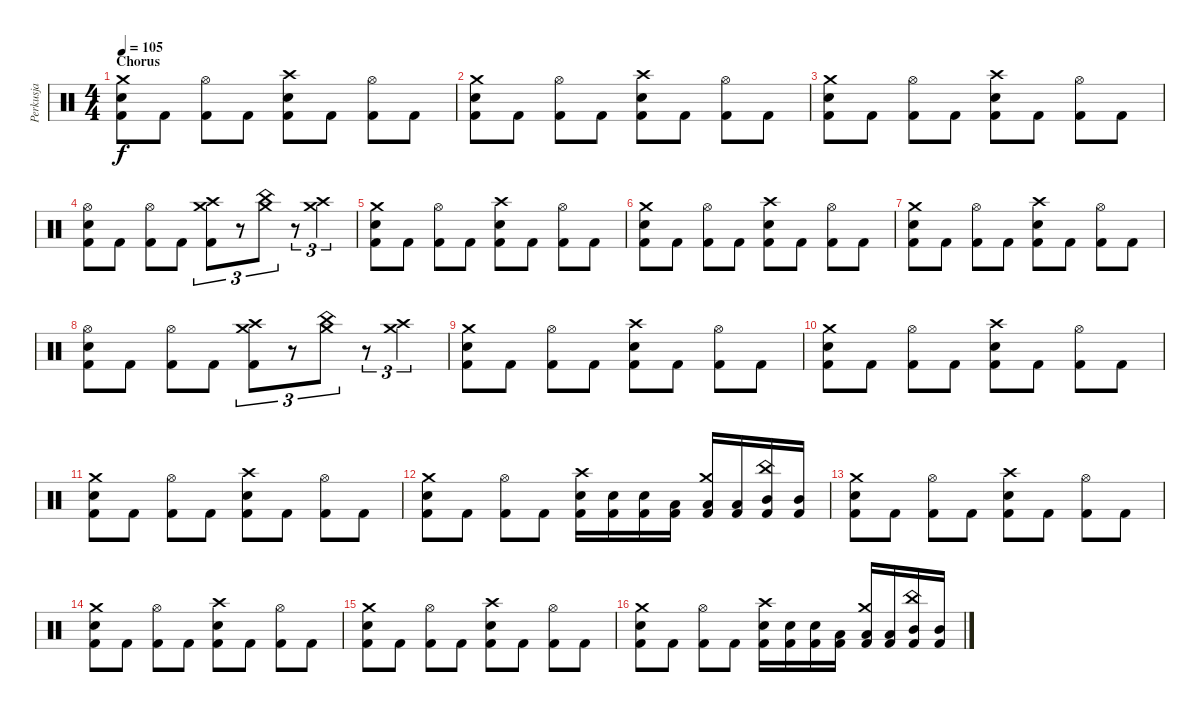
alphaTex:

\track ("Perkusja" "Perkusja") {instrument percussion}
\staff {score}
\articulation defaults
\ts (4 4)
\section ("" "Chorus")
\tempo 105
\clef neutral
\ks c
("Kick (hit) 2" "Snare (hit) 2" "Crash medium (hit)").8{dy f} "Kick (hit) 2".8 ("Kick (hit) 2" "Hi-Hat (open)").8 "Kick (hit) 2".8 ("Kick (hit) 2" "Snare (hit) 2" "Crash high (hit)").8 "Kick (hit) 2".8 ("Kick (hit) 2" "Hi-Hat (open)").8 "Kick (hit) 2".8 |
("Kick (hit) 2" "Snare (hit) 2" "Crash medium (hit)").8 "Kick (hit) 2".8 ("Kick (hit) 2" "Hi-Hat (open)").8 "Kick (hit) 2".8 ("Kick (hit) 2" "Snare (hit) 2" "Crash high (hit)").8 "Kick (hit) 2".8 ("Kick (hit) 2" "Hi-Hat (open)").8 "Kick (hit) 2".8 |
("Kick (hit) 2" "Snare (hit) 2" "Crash medium (hit)").8 "Kick (hit) 2".8 ("Kick (hit) 2" "Hi-Hat (open)").8 "Kick (hit) 2".8 ("Kick (hit) 2" "Snare (hit) 2" "Crash high (hit)").8 "Kick (hit) 2".8 ("Kick (hit) 2" "Hi-Hat (open)").8 "Kick (hit) 2".8 |
("Kick (hit) 2" "Snare (hit) 2" "Hi-Hat (open)").8 "Kick (hit) 2".8 ("Kick (hit) 2" "Hi-Hat (open)").8 "Kick (hit) 2".8 ("Kick (hit) 2" "Crash medium (hit)" "Crash high (hit)").8{tu (3 2)} r.8{tu (3 2)} ("Crash medium (hit)" "China (hit)").8{tu (3 2)} r.8{tu (3 2)} ("Crash medium (hit)" "Crash high (hit)").4{tu (3 2)} |
("Kick (hit) 2" "Snare (hit) 2" "Crash medium (hit)").8 "Kick (hit) 2".8 ("Kick (hit) 2" "Hi-Hat (open)").8 "Kick (hit) 2".8 ("Kick (hit) 2" "Snare (hit) 2" "Crash high (hit)").8 "Kick (hit) 2".8 ("Kick (hit) 2" "Hi-Hat (open)").8 "Kick (hit) 2".8 |
("Kick (hit) 2" "Snare (hit) 2" "Crash medium (hit)").8 "Kick (hit) 2".8 ("Kick (hit) 2" "Hi-Hat (open)").8 "Kick (hit) 2".8 ("Kick (hit) 2" "Snare (hit) 2" "Crash high (hit)").8 "Kick (hit) 2".8 ("Kick (hit) 2" "Hi-Hat (open)").8 "Kick (hit) 2".8 |
("Kick (hit) 2" "Snare (hit) 2" "Crash medium (hit)").8 "Kick (hit) 2".8 ("Kick (hit) 2" "Hi-Hat (open)").8 "Kick (hit) 2".8 ("Kick (hit) 2" "Snare (hit) 2" "Crash high (hit)").8 "Kick (hit) 2".8 ("Kick (hit) 2" "Hi-Hat (open)").8 "Kick (hit) 2".8 |
("Kick (hit) 2" "Snare (hit) 2" "Hi-Hat (open)").8 "Kick (hit) 2".8 ("Kick (hit) 2" "Hi-Hat (open)").8 "Kick (hit) 2".8 ("Kick (hit) 2" "Crash medium (hit)" "Crash high (hit)").8{tu (3 2)} r.8{tu (3 2)} ("Crash medium (hit)" "China (hit)").8{tu (3 2)} r.8{tu (3 2)} ("Crash medium (hit)" "Crash high (hit)").4{tu (3 2)} |
("Kick (hit) 2" "Snare (hit) 2" "Crash medium (hit)").8 "Kick (hit) 2".8 ("Kick (hit) 2" "Hi-Hat (open)").8 "Kick (hit) 2".8 ("Kick (hit) 2" "Snare (hit) 2" "Crash high (hit)").8 "Kick (hit) 2".8 ("Kick (hit) 2" "Hi-Hat (open)").8 "Kick (hit) 2".8 |
("Kick (hit) 2" "Snare (hit) 2" "Crash medium (hit)").8 "Kick (hit) 2".8 ("Kick (hit) 2" "Hi-Hat (open)").8 "Kick (hit) 2".8 ("Kick (hit) 2" "Snare (hit) 2" "Crash high (hit)").8 "Kick (hit) 2".8 ("Kick (hit) 2" "Hi-Hat (open)").8 "Kick (hit) 2".8 |
("Kick (hit) 2" "Snare (hit) 2" "Crash medium (hit)").8 "Kick (hit) 2".8 ("Kick (hit) 2" "Hi-Hat (open)").8 "Kick (hit) 2".8 ("Kick (hit) 2" "Snare (hit) 2" "Crash high (hit)").8 "Kick (hit) 2".8 ("Kick (hit) 2" "Hi-Hat (open)").8 "Kick (hit) 2".8 |
("Kick (hit) 2" "Snare (hit) 2" "Crash medium (hit)").8 "Kick (hit) 2".8 ("Kick (hit) 2" "Hi-Hat (open)").8 "Kick (hit) 2".8 ("Kick (hit) 2" "Snare (hit) 2" "Crash high (hit)").16 ("Kick (hit) 2" "Snare (hit) 2").16 ("Kick (hit) 2" "Snare (hit) 2").16 ("Kick (hit) 2" "Low Tom (hit)").16 ("Kick (hit) 2" "Low Tom (hit)" "Crash medium (hit)").16 ("Kick (hit) 2" "Low Tom (hit)").16 ("Kick (hit) 2" "Mid Tom (hit)" "China (hit)").16 ("Kick (hit) 2" "Mid Tom (hit)").16 |
("Kick (hit) 2" "Snare (hit) 2" "Crash medium (hit)").8 "Kick (hit) 2".8 ("Kick (hit) 2" "Hi-Hat (open)").8 "Kick (hit) 2".8 ("Kick (hit) 2" "Snare (hit) 2" "Crash high (hit)").8 "Kick (hit) 2".8 ("Kick (hit) 2" "Hi-Hat (open)").8 "Kick (hit) 2".8 |
("Kick (hit) 2" "Snare (hit) 2" "Crash medium (hit)").8 "Kick (hit) 2".8 ("Kick (hit) 2" "Hi-Hat (open)").8 "Kick (hit) 2".8 ("Kick (hit) 2" "Snare (hit) 2" "Crash high (hit)").8 "Kick (hit) 2".8 ("Kick (hit) 2" "Hi-Hat (open)").8 "Kick (hit) 2".8 |
("Kick (hit) 2" "Snare (hit) 2" "Crash medium (hit)").8 "Kick (hit) 2".8 ("Kick (hit) 2" "Hi-Hat (open)").8 "Kick (hit) 2".8 ("Kick (hit) 2" "Snare (hit) 2" "Crash high (hit)").8 "Kick (hit) 2".8 ("Kick (hit) 2" "Hi-Hat (open)").8 "Kick (hit) 2".8 |
("Kick (hit) 2" "Snare (hit) 2" "Crash medium (hit)").8 "Kick (hit) 2".8 ("Kick (hit) 2" "Hi-Hat (open)").8 "Kick (hit) 2".8 ("Kick (hit) 2" "Snare (hit) 2" "Crash high (hit)").16 ("Kick (hit) 2" "Snare (hit) 2").16 ("Kick (hit) 2" "Snare (hit) 2").16 ("Kick (hit) 2" "Low Tom (hit)").16 ("Kick (hit) 2" "Low Tom (hit)" "Crash medium (hit)").16 ("Kick (hit) 2" "Low Tom (hit)").16 ("Kick (hit) 2" "Mid Tom (hit)" "China (hit)").16 ("Kick (hit) 2" "Mid Tom (hit)").16
